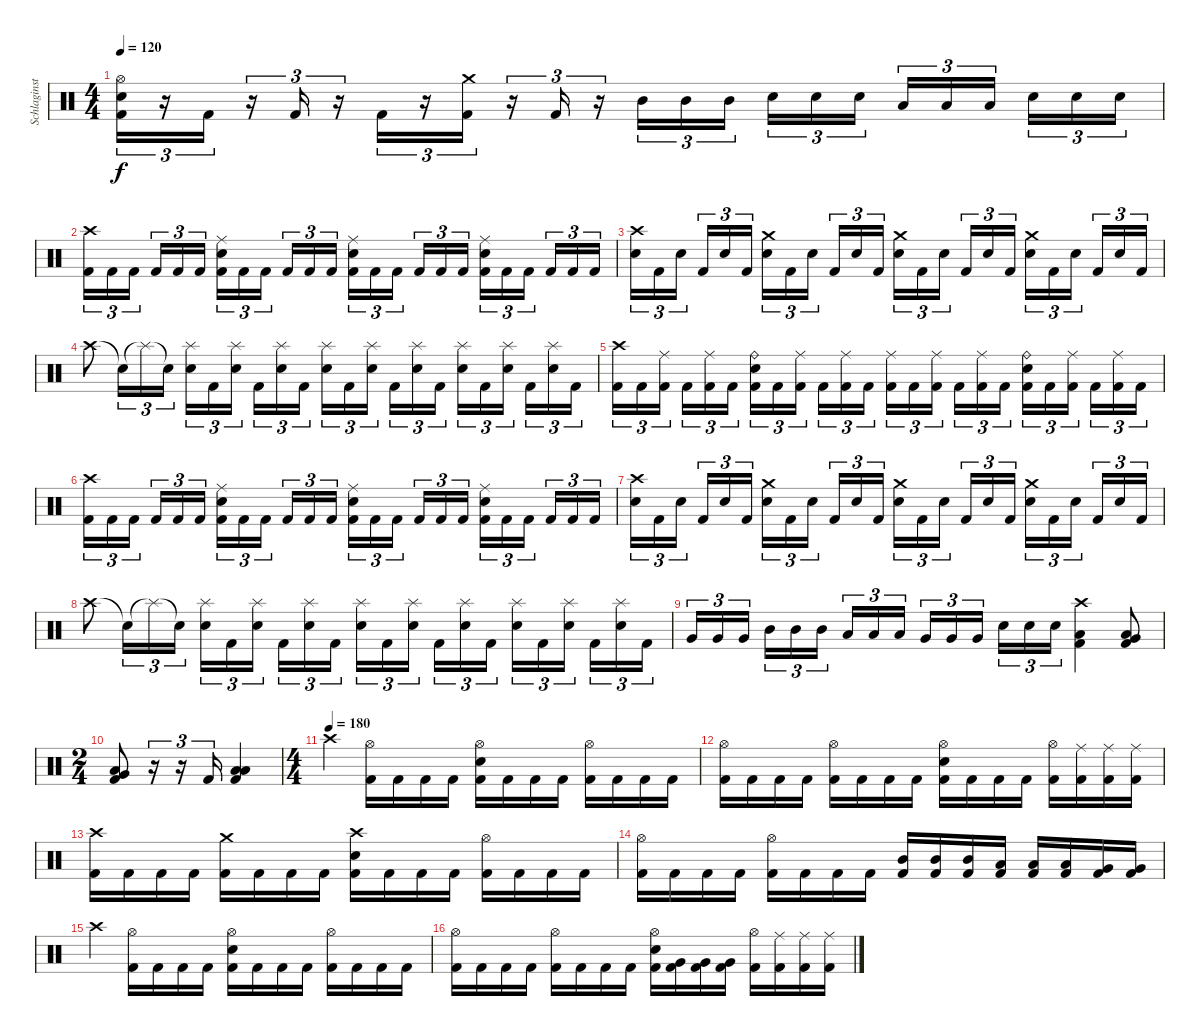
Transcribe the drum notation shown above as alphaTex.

\track ("Schlaginstrumente - Auswahl" "Schlaginst") {instrument percussion}
\staff {score}
\articulation defaults
\ts (4 4)
\tempo 120
\clef neutral
\ks c
("Hi-Hat (open)" "Electric Snare (hit)" "Kick (hit) 2").16{tu (3 2) dy f} r.16{tu (3 2)} "Kick (hit) 2".16{tu (3 2)} r.16{tu (3 2)} "Kick (hit) 2".16{tu (3 2)} r.16{tu (3 2)} "Kick (hit) 2".16{tu (3 2)} r.16{tu (3 2)} ("Crash medium (hit)" "Kick (hit) 2").16{tu (3 2)} r.16{tu (3 2)} "Kick (hit) 2".16{tu (3 2)} r.16{tu (3 2)} "Mid Tom (hit)".16{tu (3 2)} "Mid Tom (hit)".16{tu (3 2)} "Mid Tom (hit)".16{tu (3 2) beam splitsecondary} "Electric Snare (hit)".16{tu (3 2)} "Electric Snare (hit)".16{tu (3 2)} "Electric Snare (hit)".16{tu (3 2)} "Low Tom (hit)".16{tu (3 2)} "Low Tom (hit)".16{tu (3 2)} "Low Tom (hit)".16{tu (3 2) beam splitsecondary} "Electric Snare (hit)".16{tu (3 2)} "Electric Snare (hit)".16{tu (3 2)} "Electric Snare (hit)".16{tu (3 2)} |
("Crash high (hit)" "Kick (hit) 2").16{tu (3 2)} "Kick (hit) 2".16{tu (3 2)} "Kick (hit) 2".16{tu (3 2) beam splitsecondary} "Kick (hit) 2".16{tu (3 2)} "Kick (hit) 2".16{tu (3 2)} "Kick (hit) 2".16{tu (3 2)} ("Ride (middle)" "Electric Snare (hit)" "Kick (hit) 2").16{tu (3 2)} "Kick (hit) 2".16{tu (3 2)} "Kick (hit) 2".16{tu (3 2) beam splitsecondary} "Kick (hit) 2".16{tu (3 2)} "Kick (hit) 2".16{tu (3 2)} "Kick (hit) 2".16{tu (3 2)} ("Ride (middle)" "Electric Snare (hit)" "Kick (hit) 2").16{tu (3 2)} "Kick (hit) 2".16{tu (3 2)} "Kick (hit) 2".16{tu (3 2) beam splitsecondary} "Kick (hit) 2".16{tu (3 2)} "Kick (hit) 2".16{tu (3 2)} "Kick (hit) 2".16{tu (3 2)} ("Ride (middle)" "Electric Snare (hit)" "Kick (hit) 2").16{tu (3 2)} "Kick (hit) 2".16{tu (3 2)} "Kick (hit) 2".16{tu (3 2) beam splitsecondary} "Kick (hit) 2".16{tu (3 2)} "Kick (hit) 2".16{tu (3 2)} "Kick (hit) 2".16{tu (3 2)} |
("Crash high (hit)" "Electric Snare (hit)").16{tu (3 2)} "Kick (hit) 2".16{tu (3 2)} "Electric Snare (hit)".16{tu (3 2) beam splitsecondary} "Kick (hit) 2".16{tu (3 2)} "Electric Snare (hit)".16{tu (3 2)} "Kick (hit) 2".16{tu (3 2)} ("Crash medium (hit)" "Electric Snare (hit)").16{tu (3 2)} "Kick (hit) 2".16{tu (3 2)} "Electric Snare (hit)".16{tu (3 2) beam splitsecondary} "Kick (hit) 2".16{tu (3 2)} "Electric Snare (hit)".16{tu (3 2)} "Kick (hit) 2".16{tu (3 2)} ("Crash medium (hit)" "Electric Snare (hit)").16{tu (3 2)} "Kick (hit) 2".16{tu (3 2)} "Electric Snare (hit)".16{tu (3 2) beam splitsecondary} "Kick (hit) 2".16{tu (3 2)} "Electric Snare (hit)".16{tu (3 2)} "Kick (hit) 2".16{tu (3 2)} ("Crash medium (hit)" "Electric Snare (hit)").16{tu (3 2)} "Kick (hit) 2".16{tu (3 2)} "Electric Snare (hit)".16{tu (3 2) beam splitsecondary} "Kick (hit) 2".16{tu (3 2)} "Electric Snare (hit)".16{tu (3 2)} "Kick (hit) 2".16{tu (3 2)} |
"Crash high (hit)".8 "Snare (hit)"{t}.16{tu (3 2)} "Splash (hit)"{t}.16{tu (3 2)} "Snare (hit)"{t}.16{tu (3 2)} ("Splash (hit)" "Electric Snare (hit)").16{tu (3 2)} "Kick (hit) 2".16{tu (3 2)} ("Splash (hit)" "Electric Snare (hit)").16{tu (3 2) beam splitsecondary} "Kick (hit) 2".16{tu (3 2)} ("Splash (hit)" "Electric Snare (hit)").16{tu (3 2)} "Kick (hit) 2".16{tu (3 2)} ("Splash (hit)" "Electric Snare (hit)").16{tu (3 2)} "Kick (hit) 2".16{tu (3 2)} ("Splash (hit)" "Electric Snare (hit)").16{tu (3 2) beam splitsecondary} "Kick (hit) 2".16{tu (3 2)} ("Splash (hit)" "Electric Snare (hit)").16{tu (3 2)} "Kick (hit) 2".16{tu (3 2)} ("Splash (hit)" "Electric Snare (hit)").16{tu (3 2)} "Kick (hit) 2".16{tu (3 2)} ("Splash (hit)" "Electric Snare (hit)").16{tu (3 2) beam splitsecondary} "Kick (hit) 2".16{tu (3 2)} ("Splash (hit)" "Electric Snare (hit)").16{tu (3 2)} "Kick (hit) 2".16{tu (3 2)} |
("Crash high (hit)" "Kick (hit) 2").16{tu (3 2)} "Kick (hit) 2".16{tu (3 2)} ("Ride (middle)" "Kick (hit) 2").16{tu (3 2) beam splitsecondary} "Kick (hit) 2".16{tu (3 2)} ("Ride (middle)" "Kick (hit) 2").16{tu (3 2)} "Kick (hit) 2".16{tu (3 2)} ("Ride (bell)" "Electric Snare (hit)" "Kick (hit) 2").16{tu (3 2)} "Kick (hit) 2".16{tu (3 2)} ("Ride (middle)" "Kick (hit) 2").16{tu (3 2) beam splitsecondary} "Kick (hit) 2".16{tu (3 2)} ("Ride (middle)" "Kick (hit) 2").16{tu (3 2)} "Kick (hit) 2".16{tu (3 2)} ("Ride (middle)" "Kick (hit) 2").16{tu (3 2)} "Kick (hit) 2".16{tu (3 2)} ("Ride (middle)" "Kick (hit) 2").16{tu (3 2) beam splitsecondary} "Kick (hit) 2".16{tu (3 2)} ("Ride (middle)" "Kick (hit) 2").16{tu (3 2)} "Kick (hit) 2".16{tu (3 2)} ("Ride (bell)" "Electric Snare (hit)" "Kick (hit) 2").16{tu (3 2)} "Kick (hit) 2".16{tu (3 2)} ("Ride (middle)" "Kick (hit) 2").16{tu (3 2) beam splitsecondary} "Kick (hit) 2".16{tu (3 2)} ("Ride (middle)" "Kick (hit) 2").16{tu (3 2)} "Kick (hit) 2".16{tu (3 2)} |
("Crash high (hit)" "Kick (hit) 2").16{tu (3 2)} "Kick (hit) 2".16{tu (3 2)} "Kick (hit) 2".16{tu (3 2) beam splitsecondary} "Kick (hit) 2".16{tu (3 2)} "Kick (hit) 2".16{tu (3 2)} "Kick (hit) 2".16{tu (3 2)} ("Ride (middle)" "Electric Snare (hit)" "Kick (hit) 2").16{tu (3 2)} "Kick (hit) 2".16{tu (3 2)} "Kick (hit) 2".16{tu (3 2) beam splitsecondary} "Kick (hit) 2".16{tu (3 2)} "Kick (hit) 2".16{tu (3 2)} "Kick (hit) 2".16{tu (3 2)} ("Ride (middle)" "Electric Snare (hit)" "Kick (hit) 2").16{tu (3 2)} "Kick (hit) 2".16{tu (3 2)} "Kick (hit) 2".16{tu (3 2) beam splitsecondary} "Kick (hit) 2".16{tu (3 2)} "Kick (hit) 2".16{tu (3 2)} "Kick (hit) 2".16{tu (3 2)} ("Ride (middle)" "Electric Snare (hit)" "Kick (hit) 2").16{tu (3 2)} "Kick (hit) 2".16{tu (3 2)} "Kick (hit) 2".16{tu (3 2) beam splitsecondary} "Kick (hit) 2".16{tu (3 2)} "Kick (hit) 2".16{tu (3 2)} "Kick (hit) 2".16{tu (3 2)} |
("Crash high (hit)" "Electric Snare (hit)").16{tu (3 2)} "Kick (hit) 2".16{tu (3 2)} "Electric Snare (hit)".16{tu (3 2) beam splitsecondary} "Kick (hit) 2".16{tu (3 2)} "Electric Snare (hit)".16{tu (3 2)} "Kick (hit) 2".16{tu (3 2)} ("Crash medium (hit)" "Electric Snare (hit)").16{tu (3 2)} "Kick (hit) 2".16{tu (3 2)} "Electric Snare (hit)".16{tu (3 2) beam splitsecondary} "Kick (hit) 2".16{tu (3 2)} "Electric Snare (hit)".16{tu (3 2)} "Kick (hit) 2".16{tu (3 2)} ("Crash medium (hit)" "Electric Snare (hit)").16{tu (3 2)} "Kick (hit) 2".16{tu (3 2)} "Electric Snare (hit)".16{tu (3 2) beam splitsecondary} "Kick (hit) 2".16{tu (3 2)} "Electric Snare (hit)".16{tu (3 2)} "Kick (hit) 2".16{tu (3 2)} ("Crash medium (hit)" "Electric Snare (hit)").16{tu (3 2)} "Kick (hit) 2".16{tu (3 2)} "Electric Snare (hit)".16{tu (3 2) beam splitsecondary} "Kick (hit) 2".16{tu (3 2)} "Electric Snare (hit)".16{tu (3 2)} "Kick (hit) 2".16{tu (3 2)} |
"Crash high (hit)".8 "Snare (hit)"{t}.16{tu (3 2)} "Splash (hit)"{t}.16{tu (3 2)} "Snare (hit)"{t}.16{tu (3 2)} ("Splash (hit)" "Electric Snare (hit)").16{tu (3 2)} "Kick (hit) 2".16{tu (3 2)} ("Splash (hit)" "Electric Snare (hit)").16{tu (3 2) beam splitsecondary} "Kick (hit) 2".16{tu (3 2)} ("Splash (hit)" "Electric Snare (hit)").16{tu (3 2)} "Kick (hit) 2".16{tu (3 2)} ("Splash (hit)" "Electric Snare (hit)").16{tu (3 2)} "Kick (hit) 2".16{tu (3 2)} ("Splash (hit)" "Electric Snare (hit)").16{tu (3 2) beam splitsecondary} "Kick (hit) 2".16{tu (3 2)} ("Splash (hit)" "Electric Snare (hit)").16{tu (3 2)} "Kick (hit) 2".16{tu (3 2)} ("Splash (hit)" "Electric Snare (hit)").16{tu (3 2)} "Kick (hit) 2".16{tu (3 2)} ("Splash (hit)" "Electric Snare (hit)").16{tu (3 2) beam splitsecondary} "Kick (hit) 2".16{tu (3 2)} ("Splash (hit)" "Electric Snare (hit)").16{tu (3 2)} "Kick (hit) 2".16{tu (3 2)} |
"Very Low Tom (hit)".16{tu (3 2)} "Very Low Tom (hit)".16{tu (3 2)} "Very Low Tom (hit)".16{tu (3 2) beam splitsecondary} "Mid Tom (hit)".16{tu (3 2)} "Mid Tom (hit)".16{tu (3 2)} "Mid Tom (hit)".16{tu (3 2)} "Low Tom (hit)".16{tu (3 2)} "Low Tom (hit)".16{tu (3 2)} "Low Tom (hit)".16{tu (3 2) beam splitsecondary} "Very Low Tom (hit)".16{tu (3 2)} "Very Low Tom (hit)".16{tu (3 2)} "Very Low Tom (hit)".16{tu (3 2)} "Electric Snare (hit)".16{tu (3 2)} "Electric Snare (hit)".16{tu (3 2)} "Electric Snare (hit)".16{tu (3 2)} ("Crash high (hit)" "Low Tom (hit)" "Kick (hit) 2").4 ("Low Tom (hit)" "Very Low Tom (hit)" "Kick (hit) 2").8 |
\ts (2 4)
("Very Low Tom (hit)" "Low Floor Tom (hit)" "Kick (hit) 2").8 r.16{tu (3 2)} r.16{tu (3 2)} "Kick (hit) 2".16{tu (3 2)} ("Low Tom (hit)" "Low Floor Tom (hit)" "Kick (hit) 2").4 |
\ts (4 4)
\tempo (180)
"Crash high (hit)".4 ("Hi-Hat (open)" "Kick (hit) 2").16 "Kick (hit) 2".16 "Kick (hit) 2".16 "Kick (hit) 2".16 ("Hi-Hat (open)" "Electric Snare (hit)" "Kick (hit) 2").16 "Kick (hit) 2".16 "Kick (hit) 2".16 "Kick (hit) 2".16 ("Hi-Hat (open)" "Kick (hit) 2").16 "Kick (hit) 2".16 "Kick (hit) 2".16 "Kick (hit) 2".16 |
("Hi-Hat (open)" "Kick (hit) 2").16 "Kick (hit) 2".16 "Kick (hit) 2".16 "Kick (hit) 2".16 ("Hi-Hat (open)" "Kick (hit) 2").16 "Kick (hit) 2".16 "Kick (hit) 2".16 "Kick (hit) 2".16 ("Hi-Hat (open)" "Electric Snare (hit)" "Kick (hit) 2").16 "Kick (hit) 2".16 "Kick (hit) 2".16 "Kick (hit) 2".16 ("Hi-Hat (open)" "Kick (hit) 2").16 ("Ride (middle)" "Kick (hit) 2").16 ("Ride (middle)" "Kick (hit) 2").16 ("Ride (middle)" "Kick (hit) 2").16 |
("Crash high (hit)" "Kick (hit) 2").16 "Kick (hit) 2".16 "Kick (hit) 2".16 "Kick (hit) 2".16 ("Crash medium (hit)" "Kick (hit) 2").16 "Kick (hit) 2".16 "Kick (hit) 2".16 "Kick (hit) 2".16 ("Crash high (hit)" "Electric Snare (hit)" "Kick (hit) 2").16 "Kick (hit) 2".16 "Kick (hit) 2".16 "Kick (hit) 2".16 ("Hi-Hat (open)" "Kick (hit) 2").16 "Kick (hit) 2".16 "Kick (hit) 2".16 "Kick (hit) 2".16 |
("Hi-Hat (open)" "Kick (hit) 2").16 "Kick (hit) 2".16 "Kick (hit) 2".16 "Kick (hit) 2".16 ("Hi-Hat (open)" "Kick (hit) 2").16 "Kick (hit) 2".16 "Kick (hit) 2".16 "Kick (hit) 2".16 ("Mid Tom (hit)" "Kick (hit) 2").16 ("Mid Tom (hit)" "Kick (hit) 2").16 ("Mid Tom (hit)" "Kick (hit) 2").16 ("Low Tom (hit)" "Kick (hit) 2").16 ("Low Tom (hit)" "Kick (hit) 2").16 ("Low Tom (hit)" "Kick (hit) 2").16 ("Very Low Tom (hit)" "Kick (hit) 2").16 ("Very Low Tom (hit)" "Kick (hit) 2").16 |
"Crash high (hit)".4 ("Hi-Hat (open)" "Kick (hit) 2").16 "Kick (hit) 2".16 "Kick (hit) 2".16 "Kick (hit) 2".16 ("Hi-Hat (open)" "Electric Snare (hit)" "Kick (hit) 2").16 "Kick (hit) 2".16 "Kick (hit) 2".16 "Kick (hit) 2".16 ("Hi-Hat (open)" "Kick (hit) 2").16 "Kick (hit) 2".16 "Kick (hit) 2".16 "Kick (hit) 2".16 |
("Hi-Hat (open)" "Kick (hit) 2").16 "Kick (hit) 2".16 "Kick (hit) 2".16 "Kick (hit) 2".16 ("Hi-Hat (open)" "Kick (hit) 2").16 "Kick (hit) 2".16 "Kick (hit) 2".16 "Kick (hit) 2".16 ("Hi-Hat (open)" "Electric Snare (hit)" "Kick (hit) 2").16 ("Very Low Tom (hit)" "Kick (hit) 2").16 ("Very Low Tom (hit)" "Kick (hit) 2").16 ("Very Low Tom (hit)" "Kick (hit) 2").16 ("Hi-Hat (open)" "Kick (hit) 2").16 ("Ride (middle)" "Kick (hit) 2").16 ("Ride (middle)" "Kick (hit) 2").16 ("Ride (middle)" "Kick (hit) 2").16
